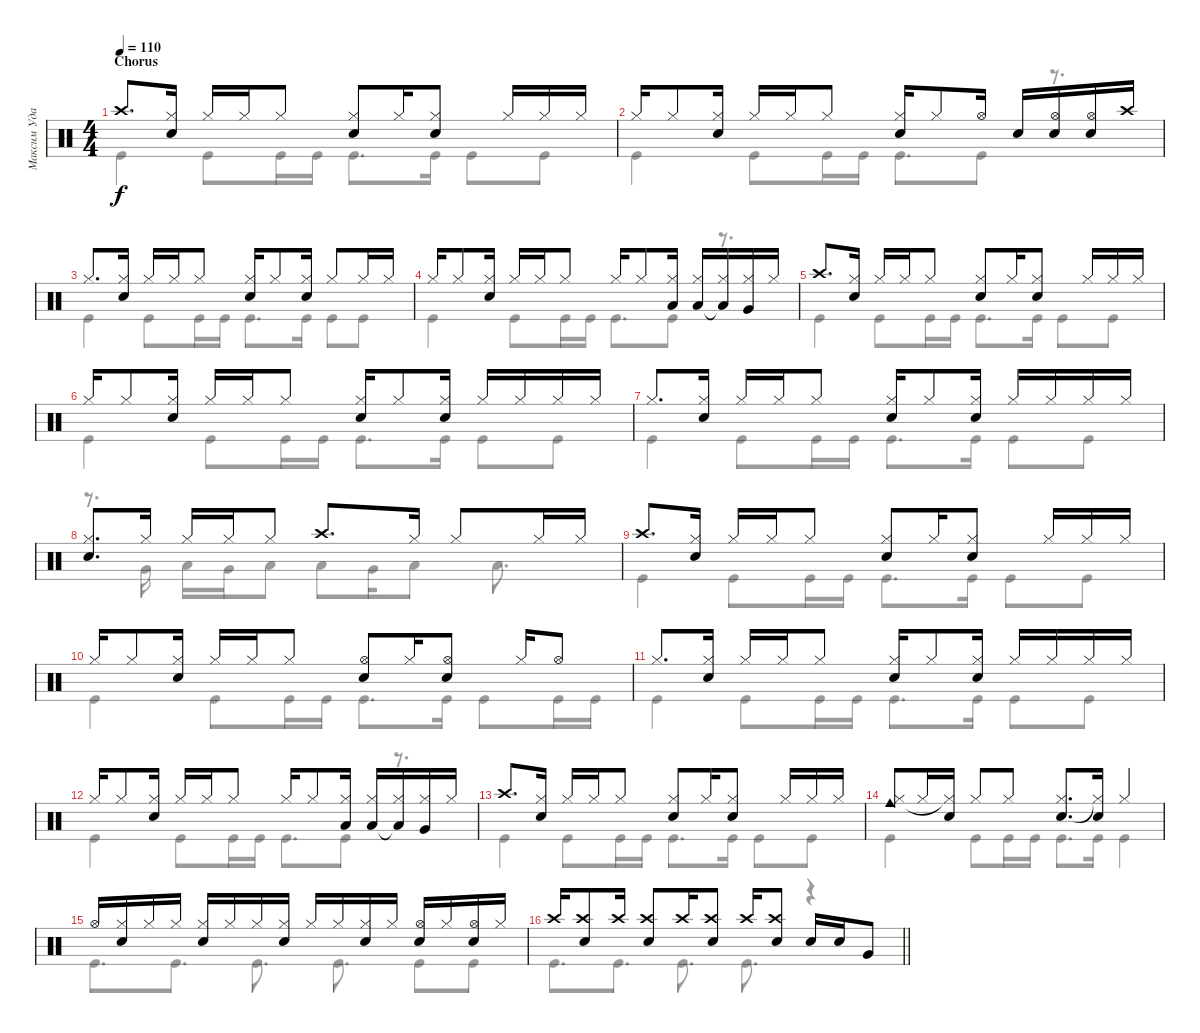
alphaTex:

\track ("Максим Удалов" "Максим Уда") {instrument percussion}
\staff {score}
\articulation defaults
\voice
\ts (4 4)
\section ("" "Chorus")
\tempo 110
\clef neutral
\ks c "Crash high (hit)".8{d dy f}
("Hi-Hat (closed)" "Snare (hit) 2").16 "Hi-Hat (closed)".16 "Hi-Hat (closed)".16 "Hi-Hat (closed)".8 ("Hi-Hat (closed)" "Snare (hit) 2").8 "Hi-Hat (closed)".16 ("Hi-Hat (closed)" "Snare (hit) 2").8 "Hi-Hat (closed)".16 "Hi-Hat (closed)".16 "Hi-Hat (closed)".16 |
"Hi-Hat (closed)".16 "Hi-Hat (closed)".8 ("Hi-Hat (closed)" "Snare (hit) 2").16 "Hi-Hat (closed)".16 "Hi-Hat (closed)".16 "Hi-Hat (closed)".8 ("Hi-Hat (closed)" "Snare (hit) 2").16 "Hi-Hat (closed)".8 "Hi-Hat (open)".16 "Snare (hit) 2".16 ("Snare (hit) 2" "Hi-Hat (open)").16 ("Snare (hit) 2" "Hi-Hat (open)").16 "Crash high (hit)".16 |
"Hi-Hat (closed)".8{d} ("Snare (hit) 2" "Hi-Hat (closed)").16 "Hi-Hat (closed)".16 "Hi-Hat (closed)".16 "Hi-Hat (closed)".8 ("Hi-Hat (closed)" "Snare (hit) 2").16 "Hi-Hat (closed)".8 ("Hi-Hat (closed)" "Snare (hit) 2").16 "Hi-Hat (closed)".8 "Hi-Hat (closed)".16 "Hi-Hat (closed)".16 |
"Hi-Hat (closed)".16 "Hi-Hat (closed)".8 ("Snare (hit) 2" "Hi-Hat (closed)").16 "Hi-Hat (closed)".16 "Hi-Hat (closed)".16 "Hi-Hat (closed)".8 "Hi-Hat (closed)".16 "Hi-Hat (closed)".8 ("Hi-Hat (closed)" "Low Tom (hit)").16 ("Hi-Hat (closed)" "Low Tom (hit)").16 ("Hi-Hat (closed)" "Low Tom (hit)"{t}).16 ("Hi-Hat (closed)" "Very Low Tom (hit)").16 "Hi-Hat (closed)".16 |
"Crash high (hit)".8{d} ("Hi-Hat (closed)" "Snare (hit) 2").16 "Hi-Hat (closed)".16 "Hi-Hat (closed)".16 "Hi-Hat (closed)".8 ("Hi-Hat (closed)" "Snare (hit) 2").8 "Hi-Hat (closed)".16 ("Hi-Hat (closed)" "Snare (hit) 2").8 "Hi-Hat (closed)".16 "Hi-Hat (closed)".16 "Hi-Hat (closed)".16 |
"Hi-Hat (closed)".16 "Hi-Hat (closed)".8 ("Hi-Hat (closed)" "Snare (hit) 2").16 "Hi-Hat (closed)".16 "Hi-Hat (closed)".16 "Hi-Hat (closed)".8 ("Hi-Hat (closed)" "Snare (hit) 2").16 "Hi-Hat (closed)".8 ("Hi-Hat (closed)" "Snare (hit) 2").16 "Hi-Hat (closed)".16 "Hi-Hat (closed)".16 "Hi-Hat (closed)".16 "Hi-Hat (closed)".16 |
"Hi-Hat (closed)".8{d} ("Snare (hit) 2" "Hi-Hat (closed)").16 "Hi-Hat (closed)".16 "Hi-Hat (closed)".16 "Hi-Hat (closed)".8 ("Hi-Hat (closed)" "Snare (hit) 2").16 "Hi-Hat (closed)".8 ("Hi-Hat (closed)" "Snare (hit) 2").16 "Hi-Hat (closed)".16 "Hi-Hat (closed)".16 "Hi-Hat (closed)".16 "Hi-Hat (closed)".16 |
("Hi-Hat (closed)" "Snare (hit) 2").8{d} "Hi-Hat (closed)".16 "Hi-Hat (closed)".16 "Hi-Hat (closed)".16 "Hi-Hat (closed)".8 "Crash high (hit)".8{d} "Hi-Hat (closed)".16 "Hi-Hat (closed)".8 "Hi-Hat (closed)".16 "Hi-Hat (closed)".16 |
"Crash high (hit)".8{d} ("Hi-Hat (closed)" "Snare (hit) 2").16 "Hi-Hat (closed)".16 "Hi-Hat (closed)".16 "Hi-Hat (closed)".8 ("Hi-Hat (closed)" "Snare (hit) 2").8 "Hi-Hat (closed)".16 ("Hi-Hat (closed)" "Snare (hit) 2").8 "Hi-Hat (closed)".16 "Hi-Hat (closed)".16 "Hi-Hat (closed)".16 |
"Hi-Hat (closed)".16 "Hi-Hat (closed)".8 ("Hi-Hat (closed)" "Snare (hit) 2").16 "Hi-Hat (closed)".16 "Hi-Hat (closed)".16 "Hi-Hat (closed)".8 ("Snare (hit) 2" "Hi-Hat (open)").8 "Hi-Hat (closed)".16 ("Snare (hit) 2" "Hi-Hat (open)").8 "Hi-Hat (closed)".16 "Hi-Hat (open)".8 |
"Hi-Hat (closed)".8{d} ("Snare (hit) 2" "Hi-Hat (closed)").16 "Hi-Hat (closed)".16 "Hi-Hat (closed)".16 "Hi-Hat (closed)".8 ("Hi-Hat (closed)" "Snare (hit) 2").16 "Hi-Hat (closed)".8 ("Hi-Hat (closed)" "Snare (hit) 2").16 "Hi-Hat (closed)".16 "Hi-Hat (closed)".16 "Hi-Hat (closed)".16 "Hi-Hat (closed)".16 |
"Hi-Hat (closed)".16 "Hi-Hat (closed)".8 ("Snare (hit) 2" "Hi-Hat (closed)").16 "Hi-Hat (closed)".16 "Hi-Hat (closed)".16 "Hi-Hat (closed)".8 "Hi-Hat (closed)".16 "Hi-Hat (closed)".8 ("Hi-Hat (closed)" "Low Tom (hit)").16 ("Hi-Hat (closed)" "Low Tom (hit)").16 ("Hi-Hat (closed)" "Low Tom (hit)"{t}).16 ("Hi-Hat (closed)" "Very Low Tom (hit)").16 "Hi-Hat (closed)".16 |
"Crash high (hit)".8{d} ("Hi-Hat (closed)" "Snare (hit) 2").16 "Hi-Hat (closed)".16 "Hi-Hat (closed)".16 "Hi-Hat (closed)".8 ("Hi-Hat (closed)" "Snare (hit) 2").8 "Hi-Hat (closed)".16 ("Hi-Hat (closed)" "Snare (hit) 2").8 "Hi-Hat (closed)".16 "Hi-Hat (closed)".16 "Hi-Hat (closed)".16 |
("Hi-Hat (closed)" "Cowbell medium (hit)").8 "Hi-Hat (closed)".16 ("Snare (hit) 2" "Hi-Hat (closed)"{t}).16 "Hi-Hat (closed)".8 "Hi-Hat (closed)".8 ("Hi-Hat (closed)" "Snare (hit) 2").8{d} ("Snare (hit) 2" "Hi-Hat (closed)"{t}).16 "Hi-Hat (closed)".4 |
"Hi-Hat (open)".16 ("Hi-Hat (closed)" "Snare (hit) 2").16 "Hi-Hat (closed)".16 "Hi-Hat (closed)".16 ("Hi-Hat (closed)" "Snare (hit) 2").16 "Hi-Hat (closed)".16 "Hi-Hat (closed)".16 ("Hi-Hat (closed)" "Snare (hit) 2").16 "Hi-Hat (closed)".16 "Hi-Hat (closed)".16 ("Hi-Hat (closed)" "Snare (hit) 2").16 "Hi-Hat (closed)".16 ("Hi-Hat (open)" "Snare (hit) 2").16 "Hi-Hat (closed)".16 ("Hi-Hat (open)" "Snare (hit) 2").16 "Hi-Hat (closed)".16 |
\barLineRight lightlight "Crash high (hit)".16
("Crash high (hit)" "Snare (hit) 2").8 "Crash high (hit)".16 ("Crash high (hit)" "Snare (hit) 2").8 "Crash high (hit)".16 ("Crash high (hit)" "Snare (hit) 2").8 "Crash high (hit)".16 ("Crash high (hit)" "Snare (hit) 2").8 "Snare (hit) 2".16 "Snare (hit) 2".16 "Very Low Tom (hit)".8
\voice
\clef neutral
\ottava regular
\simile none
\ks c "Kick (hit)".4{dy f} "Kick (hit)".8 "Kick (hit)".16 "Kick (hit)".16 "Kick (hit)".8{d} "Kick (hit)".16 "Kick (hit)".8 "Kick (hit)".8
|
"Kick (hit)".4 "Kick (hit)".8 "Kick (hit)".16 "Kick (hit)".16 "Kick (hit)".8{d} "Kick (hit)".8 r.8{d} |
"Kick (hit)".4 "Kick (hit)".8 "Kick (hit)".16 "Kick (hit)".16 "Kick (hit)".8{d} "Kick (hit)".16 "Kick (hit)".8 "Kick (hit)".8 |
"Kick (hit)".4 "Kick (hit)".8 "Kick (hit)".16 "Kick (hit)".16 "Kick (hit)".8{d} "Kick (hit)".8 r.8{d} |
"Kick (hit)".4 "Kick (hit)".8 "Kick (hit)".16 "Kick (hit)".16 "Kick (hit)".8{d} "Kick (hit)".16 "Kick (hit)".8 "Kick (hit)".8 |
"Kick (hit)".4 "Kick (hit)".8 "Kick (hit)".16 "Kick (hit)".16 "Kick (hit)".8{d} "Kick (hit)".16 "Kick (hit)".8 "Kick (hit)".8 |
"Kick (hit)".4 "Kick (hit)".8 "Kick (hit)".16 "Kick (hit)".16 "Kick (hit)".8{d} "Kick (hit)".16 "Kick (hit)".8 "Kick (hit)".8 |
r.8{d} "Very Low Tom (hit)".16 "Low Tom (hit)".16 "Very Low Tom (hit)".16 "Low Tom (hit)".8 "Low Tom (hit)".8 "Very Low Tom (hit)".16 "Low Tom (hit)".8 "Low Tom (hit)".8{d} |
"Kick (hit)".4 "Kick (hit)".8 "Kick (hit)".16 "Kick (hit)".16 "Kick (hit)".8{d} "Kick (hit)".16 "Kick (hit)".8 "Kick (hit)".8 |
"Kick (hit)".4 "Kick (hit)".8 "Kick (hit)".16 "Kick (hit)".16 "Kick (hit)".8{d} "Kick (hit)".16 "Kick (hit)".8 "Kick (hit)".16 "Kick (hit)".16 |
"Kick (hit)".4 "Kick (hit)".8 "Kick (hit)".16 "Kick (hit)".16 "Kick (hit)".8{d} "Kick (hit)".16 "Kick (hit)".8 "Kick (hit)".8 |
"Kick (hit)".4 "Kick (hit)".8 "Kick (hit)".16 "Kick (hit)".16 "Kick (hit)".8{d} "Kick (hit)".8 r.8{d} |
"Kick (hit)".4 "Kick (hit)".8 "Kick (hit)".16 "Kick (hit)".16 "Kick (hit)".8{d} "Kick (hit)".16 "Kick (hit)".8 "Kick (hit)".8 |
"Kick (hit)".4 "Kick (hit)".8 "Kick (hit)".16 "Kick (hit)".16 "Kick (hit)".8{d} "Kick (hit)".16 "Kick (hit)".4 |
"Kick (hit)".8{d} "Kick (hit)".8{d} "Kick (hit)".8{d} "Kick (hit)".8{d} "Kick (hit)".8 "Kick (hit)".8 |
\barLineRight lightlight "Kick (hit)".8{d} "Kick (hit)".8{d} "Kick (hit)".8{d} "Kick (hit)".8{d}
r.4
